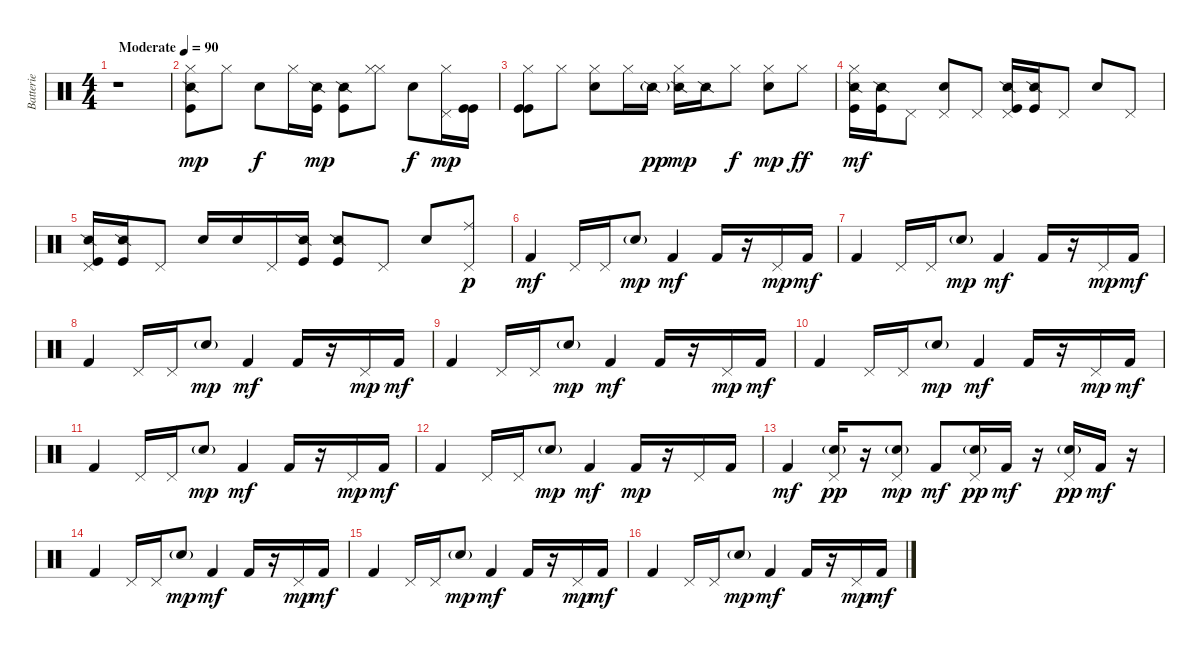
\track ("Batterie" "Batterie") {instrument percussion}
\staff {score}
\articulation defaults
\ts (4 4)
\tempo (90 "Moderate")
\clef neutral
\ks c
r.1{dy mp} |
("Hi-Hat (closed)" "Snare (side stick) 2" "Kick (hit)").8 "Hi-Hat (closed)".8 "Electric Snare (hit)".8{dy f} "Hi-Hat (closed)".16 ("Snare (side stick) 2" "Kick (hit)").16{dy mp} ("Snare (side stick) 2" "Kick (hit)").8 ("Hi-Hat (closed)" "Hi-Hat (closed)").8 "Electric Snare (hit)".8{dy f} ("Hi-Hat (closed)" "Pedal Hi-Hat (hit)").16{dy mp} ("Kick (hit)" "Kick (hit)").16 |
("Hi-Hat (closed)" "Kick (hit)" "Kick (hit)").8 "Hi-Hat (closed)".8 ("Hi-Hat (closed)" "Electric Snare (hit)").8 "Hi-Hat (closed)".16 "Snare (side stick) 2"{g}.16{dy pp} ("Hi-Hat (closed)" "Snare (side stick) 2").16{dy mp} "Snare (side stick) 2".16 "Hi-Hat (closed)".8{dy f} ("Hi-Hat (closed)" "Electric Snare (hit)").8{dy mp} "Hi-Hat (closed)".8{dy ff} |
("Hi-Hat (closed)" "Snare (side stick) 2" "Kick (hit)").16{dy mf} ("Snare (side stick) 2" "Kick (hit)").16 "Pedal Hi-Hat (hit)".8 ("Pedal Hi-Hat (hit)" "Electric Snare (hit)").8 "Pedal Hi-Hat (hit)".8 ("Pedal Hi-Hat (hit)" "Snare (side stick) 2" "Kick (hit)").16 ("Snare (side stick) 2" "Kick (hit)").16 "Pedal Hi-Hat (hit)".8 "Electric Snare (hit)".8 "Pedal Hi-Hat (hit)".8 |
("Pedal Hi-Hat (hit)" "Snare (side stick) 2" "Kick (hit)").16 ("Snare (side stick) 2" "Kick (hit)").16 "Pedal Hi-Hat (hit)".8 "Electric Snare (hit)".16 "Electric Snare (hit)".16 "Pedal Hi-Hat (hit)".16 ("Snare (side stick) 2" "Kick (hit)").16 ("Snare (side stick) 2" "Kick (hit)").8 "Pedal Hi-Hat (hit)".8 "Electric Snare (hit)".8 ("Pedal Hi-Hat (hit)" "Ride (middle)").8{dy p} |
"Kick (hit) 2".4{dy mf} "Pedal Hi-Hat (hit)".16 "Pedal Hi-Hat (hit)".16 "Hand Clap (hit)"{g}.8{dy mp} "Kick (hit) 2".4{dy mf} "Kick (hit) 2".16 r.16 "Pedal Hi-Hat (hit)".16{dy mp} "Kick (hit) 2".16{dy mf} |
"Kick (hit) 2".4 "Pedal Hi-Hat (hit)".16 "Pedal Hi-Hat (hit)".16 "Hand Clap (hit)"{g}.8{dy mp} "Kick (hit) 2".4{dy mf} "Kick (hit) 2".16 r.16 "Pedal Hi-Hat (hit)".16{dy mp} "Kick (hit) 2".16{dy mf} |
"Kick (hit) 2".4 "Pedal Hi-Hat (hit)".16 "Pedal Hi-Hat (hit)".16 "Hand Clap (hit)"{g}.8{dy mp} "Kick (hit) 2".4{dy mf} "Kick (hit) 2".16 r.16 "Pedal Hi-Hat (hit)".16{dy mp} "Kick (hit) 2".16{dy mf} |
"Kick (hit) 2".4 "Pedal Hi-Hat (hit)".16 "Pedal Hi-Hat (hit)".16 "Hand Clap (hit)"{g}.8{dy mp} "Kick (hit) 2".4{dy mf} "Kick (hit) 2".16 r.16 "Pedal Hi-Hat (hit)".16{dy mp} "Kick (hit) 2".16{dy mf} |
"Kick (hit) 2".4 "Pedal Hi-Hat (hit)".16 "Pedal Hi-Hat (hit)".16 "Hand Clap (hit)"{g}.8{dy mp} "Kick (hit) 2".4{dy mf} "Kick (hit) 2".16 r.16 "Pedal Hi-Hat (hit)".16{dy mp} "Kick (hit) 2".16{dy mf} |
"Kick (hit) 2".4 "Pedal Hi-Hat (hit)".16 "Pedal Hi-Hat (hit)".16 "Hand Clap (hit)"{g}.8{dy mp} "Kick (hit) 2".4{dy mf} "Kick (hit) 2".16 r.16 "Pedal Hi-Hat (hit)".16{dy mp} "Kick (hit) 2".16{dy mf} |
"Kick (hit) 2".4 "Pedal Hi-Hat (hit)".16 "Pedal Hi-Hat (hit)".16 "Hand Clap (hit)"{g}.8{dy mp} "Kick (hit) 2".4{dy mf} "Kick (hit) 2".16{dy mp} r.16 "Pedal Hi-Hat (hit)".16 "Kick (hit) 2".16 |
"Kick (hit) 2".4{dy mf} ("Pedal Hi-Hat (hit)" "Electric Snare (hit)"{g}).16{dy pp} r.16 ("Pedal Hi-Hat (hit)" "Electric Snare (hit)"{g}).8{dy mp} "Kick (hit) 2".8{dy mf} ("Pedal Hi-Hat (hit)" "Electric Snare (hit)"{g}).16{dy pp} "Kick (hit) 2".16{dy mf} r.16 ("Pedal Hi-Hat (hit)" "Electric Snare (hit)"{g}).16{dy pp} "Kick (hit) 2".16{dy mf} r.16 |
"Kick (hit) 2".4 "Pedal Hi-Hat (hit)".16 "Pedal Hi-Hat (hit)".16 "Hand Clap (hit)"{g}.8{dy mp} "Kick (hit) 2".4{dy mf} "Kick (hit) 2".16 r.16 "Pedal Hi-Hat (hit)".16{dy mp} "Kick (hit) 2".16{dy mf} |
"Kick (hit) 2".4 "Pedal Hi-Hat (hit)".16 "Pedal Hi-Hat (hit)".16 "Hand Clap (hit)"{g}.8{dy mp} "Kick (hit) 2".4{dy mf} "Kick (hit) 2".16 r.16 "Pedal Hi-Hat (hit)".16{dy mp} "Kick (hit) 2".16{dy mf} |
"Kick (hit) 2".4 "Pedal Hi-Hat (hit)".16 "Pedal Hi-Hat (hit)".16 "Hand Clap (hit)"{g}.8{dy mp} "Kick (hit) 2".4{dy mf} "Kick (hit) 2".16 r.16 "Pedal Hi-Hat (hit)".16{dy mp} "Kick (hit) 2".16{dy mf}
